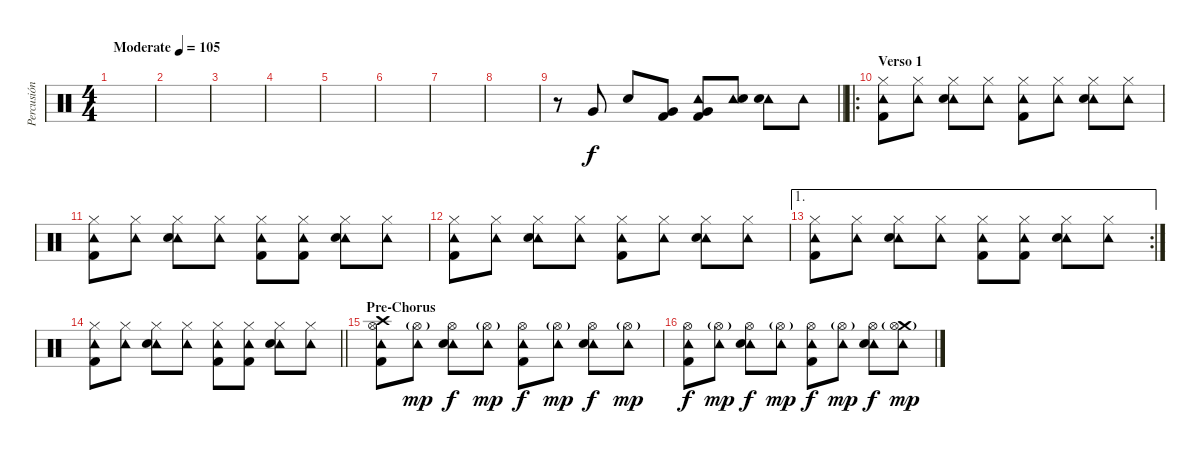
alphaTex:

\track ("Percusión" "Percusión") {instrument percussion}
\staff {score}
\articulation defaults
\ts (4 4)
\tempo (105 "Moderate")
\clef neutral
\ks c
|
|
|
|
|
|
|
|
\barLineRight lightlight
r.8 "Very Low Tom (hit)".8 "Electric Snare (hit)".8 ("Very Low Tom (hit)" "Kick (hit) 2").8 ("Tambourine (hit)" "Very Low Tom (hit)" "Kick (hit) 2").8 ("Tambourine (hit)" "Electric Snare (hit)").8 ("Tambourine (hit)" "Electric Snare (hit)").8 "Tambourine (hit)".8 |
\ro
\section ("" "Verso 1")
("Tambourine (hit)" "Hi-Hat (closed)" "Kick (hit) 2").8 ("Tambourine (hit)" "Hi-Hat (closed)").8 ("Tambourine (hit)" "Hi-Hat (closed)" "Electric Snare (hit)").8 ("Tambourine (hit)" "Hi-Hat (closed)").8 ("Tambourine (hit)" "Hi-Hat (closed)" "Kick (hit) 2").8 ("Tambourine (hit)" "Hi-Hat (closed)").8 ("Tambourine (hit)" "Hi-Hat (closed)" "Electric Snare (hit)").8 ("Tambourine (hit)" "Hi-Hat (closed)").8 |
("Tambourine (hit)" "Hi-Hat (closed)" "Kick (hit) 2").8 ("Tambourine (hit)" "Hi-Hat (closed)").8 ("Tambourine (hit)" "Hi-Hat (closed)" "Electric Snare (hit)").8 ("Tambourine (hit)" "Hi-Hat (closed)").8 ("Tambourine (hit)" "Hi-Hat (closed)" "Kick (hit) 2").8 ("Tambourine (hit)" "Hi-Hat (closed)" "Kick (hit) 2").8 ("Tambourine (hit)" "Hi-Hat (closed)" "Electric Snare (hit)").8 ("Tambourine (hit)" "Hi-Hat (closed)").8 |
("Tambourine (hit)" "Hi-Hat (closed)" "Kick (hit) 2").8 ("Tambourine (hit)" "Hi-Hat (closed)").8 ("Tambourine (hit)" "Hi-Hat (closed)" "Electric Snare (hit)").8 ("Tambourine (hit)" "Hi-Hat (closed)").8 ("Tambourine (hit)" "Hi-Hat (closed)" "Kick (hit) 2").8 ("Tambourine (hit)" "Hi-Hat (closed)").8 ("Tambourine (hit)" "Hi-Hat (closed)" "Electric Snare (hit)").8 ("Tambourine (hit)" "Hi-Hat (closed)").8 |
\ae 1
\rc 2
("Tambourine (hit)" "Hi-Hat (closed)" "Kick (hit) 2").8 ("Tambourine (hit)" "Hi-Hat (closed)").8 ("Tambourine (hit)" "Hi-Hat (closed)" "Electric Snare (hit)").8 ("Tambourine (hit)" "Hi-Hat (closed)").8 ("Tambourine (hit)" "Hi-Hat (closed)" "Kick (hit) 2").8 ("Tambourine (hit)" "Hi-Hat (closed)" "Kick (hit) 2").8 ("Tambourine (hit)" "Hi-Hat (closed)" "Electric Snare (hit)").8 ("Tambourine (hit)" "Hi-Hat (closed)").8 |
\barLineRight lightlight
("Tambourine (hit)" "Hi-Hat (closed)" "Kick (hit) 2").8 ("Tambourine (hit)" "Hi-Hat (closed)").8 ("Tambourine (hit)" "Hi-Hat (closed)" "Electric Snare (hit)").8 ("Tambourine (hit)" "Hi-Hat (closed)").8 ("Tambourine (hit)" "Hi-Hat (closed)" "Kick (hit) 2").8 ("Tambourine (hit)" "Hi-Hat (closed)" "Kick (hit) 2").8 ("Tambourine (hit)" "Hi-Hat (closed)" "Electric Snare (hit)").8 ("Tambourine (hit)" "Hi-Hat (closed)").8 |
\section ("" "Pre-Chorus")
("Tambourine (hit)" "Crash high (hit)" "Hi-Hat (open)" "Kick (hit) 2").8 ("Tambourine (hit)" "Hi-Hat (open)"{g}).8{dy mp} ("Tambourine (hit)" "Hi-Hat (open)" "Electric Snare (hit)").8{dy f} ("Tambourine (hit)" "Hi-Hat (open)"{g}).8{dy mp} ("Tambourine (hit)" "Hi-Hat (open)" "Kick (hit) 2").8{dy f} ("Tambourine (hit)" "Hi-Hat (open)"{g}).8{dy mp} ("Tambourine (hit)" "Hi-Hat (open)" "Electric Snare (hit)").8{dy f} ("Tambourine (hit)" "Hi-Hat (open)"{g}).8{dy mp} |
("Tambourine (hit)" "Hi-Hat (open)" "Kick (hit) 2").8{dy f} ("Tambourine (hit)" "Hi-Hat (open)"{g}).8{dy mp} ("Tambourine (hit)" "Hi-Hat (open)" "Electric Snare (hit)").8{dy f} ("Tambourine (hit)" "Hi-Hat (open)"{g}).8{dy mp} ("Tambourine (hit)" "Hi-Hat (open)" "Kick (hit) 2").8{dy f} ("Tambourine (hit)" "Hi-Hat (open)"{g}).8{dy mp} ("Tambourine (hit)" "Hi-Hat (open)" "Electric Snare (hit)").8{dy f} ("Tambourine (hit)" "Crash medium (hit)" "Hi-Hat (open)"{g}).8{dy mp}
